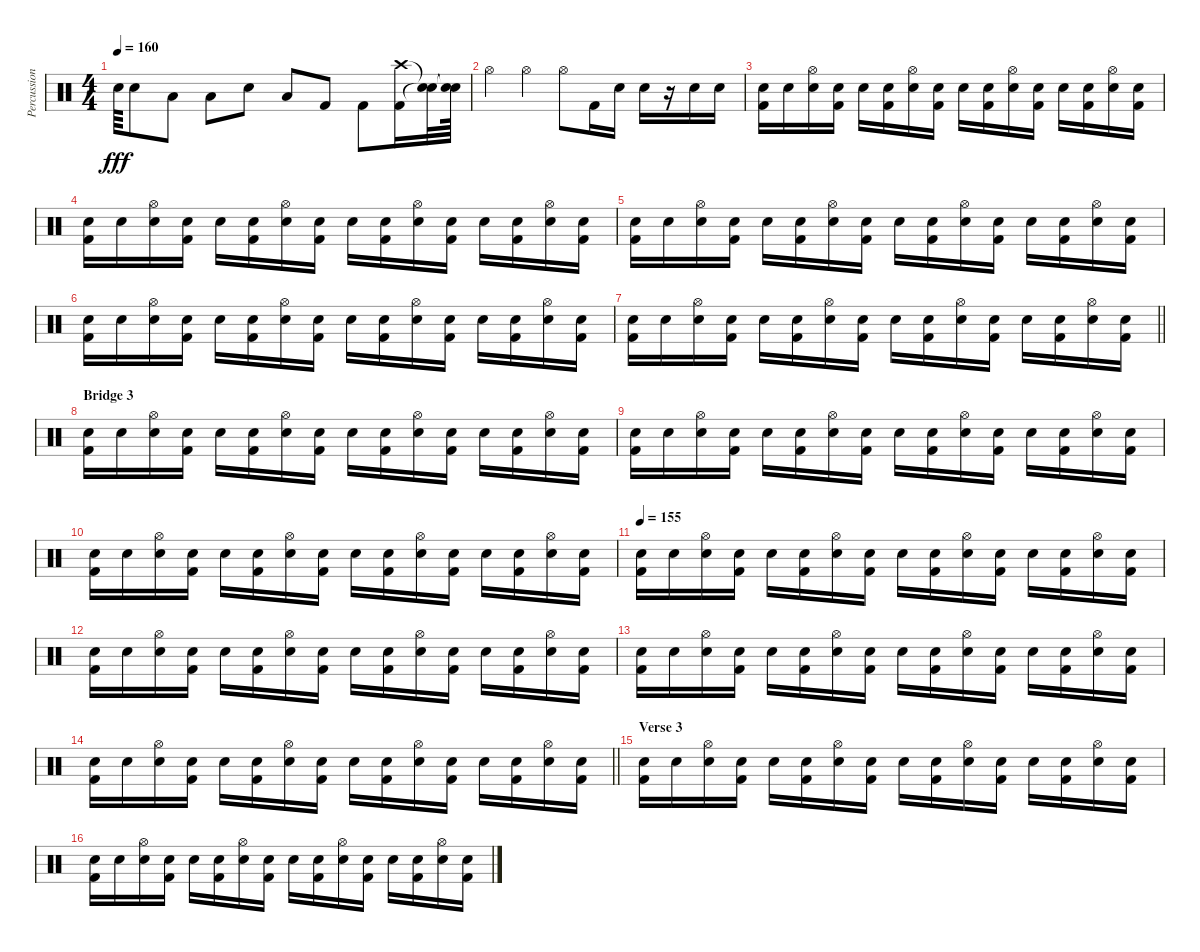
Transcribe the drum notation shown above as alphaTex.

\track ("Percussion" "Percussion") {instrument percussion}
\staff {score}
\articulation defaults
\ts (4 4)
\tempo 160
\clef neutral
\ks c "Snare (hit) 2".64{dy fff} "Snare (hit) 2".8 "Low Tom (hit)".8 "Low Tom (hit)".8 "Snare (hit) 2".8 "Low Tom (hit)".8 "Kick (hit) 2".8 "Kick (hit) 2".8
("Kick (hit) 2" "Crash high (hit)").16 ("Snare (hit)"{t} "Snare (hit)"{t}).32 ("Snare (hit)"{t} "Snare (hit)"{t}).64 |
"Hi-Hat (open)".4 "Hi-Hat (open)".4 "Hi-Hat (open)".8 "Kick (hit) 2".16 "Snare (hit) 2".16 "Snare (hit) 2".16 r.16 "Snare (hit) 2".16 "Snare (hit) 2".16 |
("Snare (hit) 2" "Kick (hit) 2").16 "Snare (hit) 2".16 ("Snare (hit) 2" "Hi-Hat (open)").16 ("Snare (hit) 2" "Kick (hit) 2").16 "Snare (hit) 2".16 ("Snare (hit) 2" "Kick (hit) 2").16 ("Snare (hit) 2" "Hi-Hat (open)").16 ("Snare (hit) 2" "Kick (hit) 2").16 "Snare (hit) 2".16 ("Snare (hit) 2" "Kick (hit) 2").16 ("Snare (hit) 2" "Hi-Hat (open)").16 ("Snare (hit) 2" "Kick (hit) 2").16 "Snare (hit) 2".16 ("Snare (hit) 2" "Kick (hit) 2").16 ("Snare (hit) 2" "Hi-Hat (open)").16 ("Snare (hit) 2" "Kick (hit) 2").16 |
("Snare (hit) 2" "Kick (hit) 2").16 "Snare (hit) 2".16 ("Snare (hit) 2" "Hi-Hat (open)").16 ("Snare (hit) 2" "Kick (hit) 2").16 "Snare (hit) 2".16 ("Snare (hit) 2" "Kick (hit) 2").16 ("Snare (hit) 2" "Hi-Hat (open)").16 ("Snare (hit) 2" "Kick (hit) 2").16 "Snare (hit) 2".16 ("Snare (hit) 2" "Kick (hit) 2").16 ("Snare (hit) 2" "Hi-Hat (open)").16 ("Snare (hit) 2" "Kick (hit) 2").16 "Snare (hit) 2".16 ("Snare (hit) 2" "Kick (hit) 2").16 ("Snare (hit) 2" "Hi-Hat (open)").16 ("Snare (hit) 2" "Kick (hit) 2").16 |
("Snare (hit) 2" "Kick (hit) 2").16 "Snare (hit) 2".16 ("Snare (hit) 2" "Hi-Hat (open)").16 ("Snare (hit) 2" "Kick (hit) 2").16 "Snare (hit) 2".16 ("Snare (hit) 2" "Kick (hit) 2").16 ("Snare (hit) 2" "Hi-Hat (open)").16 ("Snare (hit) 2" "Kick (hit) 2").16 "Snare (hit) 2".16 ("Snare (hit) 2" "Kick (hit) 2").16 ("Snare (hit) 2" "Hi-Hat (open)").16 ("Snare (hit) 2" "Kick (hit) 2").16 "Snare (hit) 2".16 ("Snare (hit) 2" "Kick (hit) 2").16 ("Snare (hit) 2" "Hi-Hat (open)").16 ("Snare (hit) 2" "Kick (hit) 2").16 |
("Snare (hit) 2" "Kick (hit) 2").16 "Snare (hit) 2".16 ("Snare (hit) 2" "Hi-Hat (open)").16 ("Snare (hit) 2" "Kick (hit) 2").16 "Snare (hit) 2".16 ("Snare (hit) 2" "Kick (hit) 2").16 ("Snare (hit) 2" "Hi-Hat (open)").16 ("Snare (hit) 2" "Kick (hit) 2").16 "Snare (hit) 2".16 ("Snare (hit) 2" "Kick (hit) 2").16 ("Snare (hit) 2" "Hi-Hat (open)").16 ("Snare (hit) 2" "Kick (hit) 2").16 "Snare (hit) 2".16 ("Snare (hit) 2" "Kick (hit) 2").16 ("Snare (hit) 2" "Hi-Hat (open)").16 ("Snare (hit) 2" "Kick (hit) 2").16 |
\barLineRight lightlight
("Snare (hit) 2" "Kick (hit) 2").16 "Snare (hit) 2".16 ("Snare (hit) 2" "Hi-Hat (open)").16 ("Snare (hit) 2" "Kick (hit) 2").16 "Snare (hit) 2".16 ("Snare (hit) 2" "Kick (hit) 2").16 ("Snare (hit) 2" "Hi-Hat (open)").16 ("Snare (hit) 2" "Kick (hit) 2").16 "Snare (hit) 2".16 ("Snare (hit) 2" "Kick (hit) 2").16 ("Snare (hit) 2" "Hi-Hat (open)").16 ("Snare (hit) 2" "Kick (hit) 2").16 "Snare (hit) 2".16 ("Snare (hit) 2" "Kick (hit) 2").16 ("Snare (hit) 2" "Hi-Hat (open)").16 ("Snare (hit) 2" "Kick (hit) 2").16 |
\section ("" "Bridge 3")
("Snare (hit) 2" "Kick (hit) 2").16 "Snare (hit) 2".16 ("Snare (hit) 2" "Hi-Hat (open)").16 ("Snare (hit) 2" "Kick (hit) 2").16 "Snare (hit) 2".16 ("Snare (hit) 2" "Kick (hit) 2").16 ("Snare (hit) 2" "Hi-Hat (open)").16 ("Snare (hit) 2" "Kick (hit) 2").16 "Snare (hit) 2".16 ("Snare (hit) 2" "Kick (hit) 2").16 ("Snare (hit) 2" "Hi-Hat (open)").16 ("Snare (hit) 2" "Kick (hit) 2").16 "Snare (hit) 2".16 ("Snare (hit) 2" "Kick (hit) 2").16 ("Snare (hit) 2" "Hi-Hat (open)").16 ("Snare (hit) 2" "Kick (hit) 2").16 |
("Snare (hit) 2" "Kick (hit) 2").16 "Snare (hit) 2".16 ("Snare (hit) 2" "Hi-Hat (open)").16 ("Snare (hit) 2" "Kick (hit) 2").16 "Snare (hit) 2".16 ("Snare (hit) 2" "Kick (hit) 2").16 ("Snare (hit) 2" "Hi-Hat (open)").16 ("Snare (hit) 2" "Kick (hit) 2").16 "Snare (hit) 2".16 ("Snare (hit) 2" "Kick (hit) 2").16 ("Snare (hit) 2" "Hi-Hat (open)").16 ("Snare (hit) 2" "Kick (hit) 2").16 "Snare (hit) 2".16 ("Snare (hit) 2" "Kick (hit) 2").16 ("Snare (hit) 2" "Hi-Hat (open)").16 ("Snare (hit) 2" "Kick (hit) 2").16 |
("Snare (hit) 2" "Kick (hit) 2").16 "Snare (hit) 2".16 ("Snare (hit) 2" "Hi-Hat (open)").16 ("Snare (hit) 2" "Kick (hit) 2").16 "Snare (hit) 2".16 ("Snare (hit) 2" "Kick (hit) 2").16 ("Snare (hit) 2" "Hi-Hat (open)").16 ("Snare (hit) 2" "Kick (hit) 2").16 "Snare (hit) 2".16 ("Snare (hit) 2" "Kick (hit) 2").16 ("Snare (hit) 2" "Hi-Hat (open)").16 ("Snare (hit) 2" "Kick (hit) 2").16 "Snare (hit) 2".16 ("Snare (hit) 2" "Kick (hit) 2").16 ("Snare (hit) 2" "Hi-Hat (open)").16 ("Snare (hit) 2" "Kick (hit) 2").16 |
\tempo 155
("Snare (hit) 2" "Kick (hit) 2").16 "Snare (hit) 2".16 ("Snare (hit) 2" "Hi-Hat (open)").16 ("Snare (hit) 2" "Kick (hit) 2").16 "Snare (hit) 2".16 ("Snare (hit) 2" "Kick (hit) 2").16 ("Snare (hit) 2" "Hi-Hat (open)").16 ("Snare (hit) 2" "Kick (hit) 2").16 "Snare (hit) 2".16 ("Snare (hit) 2" "Kick (hit) 2").16 ("Snare (hit) 2" "Hi-Hat (open)").16 ("Snare (hit) 2" "Kick (hit) 2").16 "Snare (hit) 2".16 ("Snare (hit) 2" "Kick (hit) 2").16 ("Snare (hit) 2" "Hi-Hat (open)").16 ("Snare (hit) 2" "Kick (hit) 2").16 |
("Snare (hit) 2" "Kick (hit) 2").16 "Snare (hit) 2".16 ("Snare (hit) 2" "Hi-Hat (open)").16 ("Snare (hit) 2" "Kick (hit) 2").16 "Snare (hit) 2".16 ("Snare (hit) 2" "Kick (hit) 2").16 ("Snare (hit) 2" "Hi-Hat (open)").16 ("Snare (hit) 2" "Kick (hit) 2").16 "Snare (hit) 2".16 ("Snare (hit) 2" "Kick (hit) 2").16 ("Snare (hit) 2" "Hi-Hat (open)").16 ("Snare (hit) 2" "Kick (hit) 2").16 "Snare (hit) 2".16 ("Snare (hit) 2" "Kick (hit) 2").16 ("Snare (hit) 2" "Hi-Hat (open)").16 ("Snare (hit) 2" "Kick (hit) 2").16 |
("Snare (hit) 2" "Kick (hit) 2").16 "Snare (hit) 2".16 ("Snare (hit) 2" "Hi-Hat (open)").16 ("Snare (hit) 2" "Kick (hit) 2").16 "Snare (hit) 2".16 ("Snare (hit) 2" "Kick (hit) 2").16 ("Snare (hit) 2" "Hi-Hat (open)").16 ("Snare (hit) 2" "Kick (hit) 2").16 "Snare (hit) 2".16 ("Snare (hit) 2" "Kick (hit) 2").16 ("Snare (hit) 2" "Hi-Hat (open)").16 ("Snare (hit) 2" "Kick (hit) 2").16 "Snare (hit) 2".16 ("Snare (hit) 2" "Kick (hit) 2").16 ("Snare (hit) 2" "Hi-Hat (open)").16 ("Snare (hit) 2" "Kick (hit) 2").16 |
\barLineRight lightlight
("Snare (hit) 2" "Kick (hit) 2").16 "Snare (hit) 2".16 ("Snare (hit) 2" "Hi-Hat (open)").16 ("Snare (hit) 2" "Kick (hit) 2").16 "Snare (hit) 2".16 ("Snare (hit) 2" "Kick (hit) 2").16 ("Snare (hit) 2" "Hi-Hat (open)").16 ("Snare (hit) 2" "Kick (hit) 2").16 "Snare (hit) 2".16 ("Snare (hit) 2" "Kick (hit) 2").16 ("Snare (hit) 2" "Hi-Hat (open)").16 ("Snare (hit) 2" "Kick (hit) 2").16 "Snare (hit) 2".16 ("Snare (hit) 2" "Kick (hit) 2").16 ("Snare (hit) 2" "Hi-Hat (open)").16 ("Snare (hit) 2" "Kick (hit) 2").16 |
\section ("" "Verse 3")
("Snare (hit) 2" "Kick (hit) 2").16{volume 7} "Snare (hit) 2".16 ("Snare (hit) 2" "Hi-Hat (open)").16 ("Snare (hit) 2" "Kick (hit) 2").16 "Snare (hit) 2".16 ("Snare (hit) 2" "Kick (hit) 2").16 ("Snare (hit) 2" "Hi-Hat (open)").16 ("Snare (hit) 2" "Kick (hit) 2").16 "Snare (hit) 2".16 ("Snare (hit) 2" "Kick (hit) 2").16 ("Snare (hit) 2" "Hi-Hat (open)").16 ("Snare (hit) 2" "Kick (hit) 2").16 "Snare (hit) 2".16 ("Snare (hit) 2" "Kick (hit) 2").16 ("Snare (hit) 2" "Hi-Hat (open)").16 ("Snare (hit) 2" "Kick (hit) 2").16 |
("Snare (hit) 2" "Kick (hit) 2").16 "Snare (hit) 2".16 ("Snare (hit) 2" "Hi-Hat (open)").16 ("Snare (hit) 2" "Kick (hit) 2").16 "Snare (hit) 2".16 ("Snare (hit) 2" "Kick (hit) 2").16 ("Snare (hit) 2" "Hi-Hat (open)").16 ("Snare (hit) 2" "Kick (hit) 2").16 "Snare (hit) 2".16 ("Snare (hit) 2" "Kick (hit) 2").16 ("Snare (hit) 2" "Hi-Hat (open)").16 ("Snare (hit) 2" "Kick (hit) 2").16 "Snare (hit) 2".16 ("Snare (hit) 2" "Kick (hit) 2").16 ("Snare (hit) 2" "Hi-Hat (open)").16 ("Snare (hit) 2" "Kick (hit) 2").16
